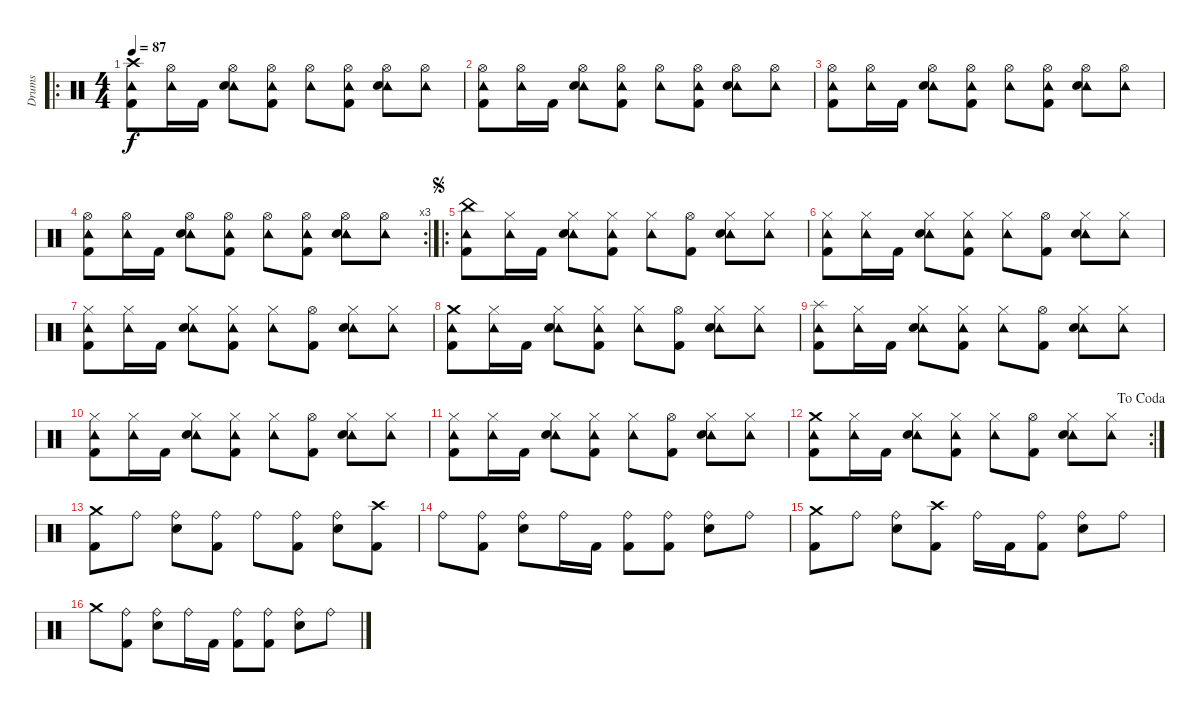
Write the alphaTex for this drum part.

\track ("Drums" "Drums") {instrument percussion}
\staff {score}
\articulation defaults
\ro
\ts (4 4)
\tempo 87
\clef neutral
\ks c
("Tambourine (hit)" "Crash high (hit)" "Kick (hit) 2").8{dy f volume 0} ("Tambourine (hit)" "Hi-Hat (open)").16{volume 6} "Kick (hit) 2".16 ("Tambourine (hit)" "Hi-Hat (open)" "Snare (hit) 2").8 ("Tambourine (hit)" "Hi-Hat (open)" "Kick (hit) 2").8 ("Tambourine (hit)" "Hi-Hat (open)").8 ("Tambourine (hit)" "Hi-Hat (open)" "Kick (hit) 2").8 ("Tambourine (hit)" "Hi-Hat (open)" "Snare (hit) 2").8 ("Tambourine (hit)" "Hi-Hat (open)").8 |
("Tambourine (hit)" "Hi-Hat (open)" "Kick (hit) 2").8 ("Tambourine (hit)" "Hi-Hat (open)").16 "Kick (hit) 2".16 ("Tambourine (hit)" "Hi-Hat (open)" "Snare (hit) 2").8 ("Tambourine (hit)" "Hi-Hat (open)" "Kick (hit) 2").8 ("Tambourine (hit)" "Hi-Hat (open)").8 ("Tambourine (hit)" "Hi-Hat (open)" "Kick (hit) 2").8 ("Tambourine (hit)" "Hi-Hat (open)" "Snare (hit) 2").8 ("Tambourine (hit)" "Hi-Hat (open)").8 |
("Tambourine (hit)" "Hi-Hat (open)" "Kick (hit) 2").8{volume 10} ("Tambourine (hit)" "Hi-Hat (open)").16 "Kick (hit) 2".16 ("Tambourine (hit)" "Hi-Hat (open)" "Snare (hit) 2").8 ("Tambourine (hit)" "Hi-Hat (open)" "Kick (hit) 2").8 ("Tambourine (hit)" "Hi-Hat (open)").8 ("Tambourine (hit)" "Hi-Hat (open)" "Kick (hit) 2").8 ("Tambourine (hit)" "Hi-Hat (open)" "Snare (hit) 2").8 ("Tambourine (hit)" "Hi-Hat (open)").8 |
\rc 3
("Tambourine (hit)" "Hi-Hat (open)" "Kick (hit) 2").8 ("Tambourine (hit)" "Hi-Hat (open)").16 "Kick (hit) 2".16 ("Tambourine (hit)" "Hi-Hat (open)" "Snare (hit) 2").8 ("Tambourine (hit)" "Hi-Hat (open)" "Kick (hit) 2").8 ("Tambourine (hit)" "Hi-Hat (open)").8 ("Tambourine (hit)" "Hi-Hat (open)" "Kick (hit) 2").8 ("Tambourine (hit)" "Hi-Hat (open)" "Snare (hit) 2").8 ("Tambourine (hit)" "Hi-Hat (open)").8 |
\ro
\jump segno
("Tambourine (hit)" "China (hit)" "Kick (hit) 2").8 ("Tambourine (hit)" "Hi-Hat (closed)").16 "Kick (hit) 2".16 ("Tambourine (hit)" "Hi-Hat (closed)" "Snare (hit) 2").8 ("Tambourine (hit)" "Hi-Hat (closed)" "Kick (hit) 2").8 ("Tambourine (hit)" "Hi-Hat (closed)").8 ("Hi-Hat (open)" "Kick (hit) 2").8 ("Tambourine (hit)" "Hi-Hat (closed)" "Snare (hit) 2").8 ("Tambourine (hit)" "Hi-Hat (closed)").8 |
("Tambourine (hit)" "Hi-Hat (closed)" "Kick (hit) 2").8 ("Tambourine (hit)" "Hi-Hat (closed)").16 "Kick (hit) 2".16 ("Tambourine (hit)" "Hi-Hat (closed)" "Snare (hit) 2").8 ("Tambourine (hit)" "Hi-Hat (closed)" "Kick (hit) 2").8 ("Tambourine (hit)" "Hi-Hat (closed)").8 ("Hi-Hat (open)" "Kick (hit) 2").8 ("Tambourine (hit)" "Hi-Hat (closed)" "Snare (hit) 2").8 ("Tambourine (hit)" "Hi-Hat (closed)").8 |
("Tambourine (hit)" "Hi-Hat (closed)" "Kick (hit) 2").8 ("Tambourine (hit)" "Hi-Hat (closed)").16 "Kick (hit) 2".16 ("Tambourine (hit)" "Hi-Hat (closed)" "Snare (hit) 2").8 ("Tambourine (hit)" "Hi-Hat (closed)" "Kick (hit) 2").8 ("Tambourine (hit)" "Hi-Hat (closed)").8 ("Hi-Hat (open)" "Kick (hit) 2").8 ("Tambourine (hit)" "Hi-Hat (closed)" "Snare (hit) 2").8 ("Tambourine (hit)" "Hi-Hat (closed)").8 |
("Tambourine (hit)" "Crash medium (hit)" "Kick (hit) 2").8 ("Tambourine (hit)" "Hi-Hat (closed)").16 "Kick (hit) 2".16 ("Tambourine (hit)" "Hi-Hat (closed)" "Snare (hit) 2").8 ("Tambourine (hit)" "Hi-Hat (closed)" "Kick (hit) 2").8 ("Tambourine (hit)" "Hi-Hat (closed)").8 ("Hi-Hat (open)" "Kick (hit) 2").8 ("Tambourine (hit)" "Hi-Hat (closed)" "Snare (hit) 2").8 ("Tambourine (hit)" "Hi-Hat (closed)").8 |
("Tambourine (hit)" "Splash (hit)" "Kick (hit) 2").8 ("Tambourine (hit)" "Hi-Hat (closed)").16 "Kick (hit) 2".16 ("Tambourine (hit)" "Hi-Hat (closed)" "Snare (hit) 2").8 ("Tambourine (hit)" "Hi-Hat (closed)" "Kick (hit) 2").8 ("Tambourine (hit)" "Hi-Hat (closed)").8 ("Hi-Hat (open)" "Kick (hit) 2").8 ("Tambourine (hit)" "Hi-Hat (closed)" "Snare (hit) 2").8 ("Tambourine (hit)" "Hi-Hat (closed)").8 |
("Tambourine (hit)" "Hi-Hat (closed)" "Kick (hit) 2").8 ("Tambourine (hit)" "Hi-Hat (closed)").16 "Kick (hit) 2".16 ("Tambourine (hit)" "Hi-Hat (closed)" "Snare (hit) 2").8 ("Tambourine (hit)" "Hi-Hat (closed)" "Kick (hit) 2").8 ("Tambourine (hit)" "Hi-Hat (closed)").8 ("Hi-Hat (open)" "Kick (hit) 2").8 ("Tambourine (hit)" "Hi-Hat (closed)" "Snare (hit) 2").8 ("Tambourine (hit)" "Hi-Hat (closed)").8 |
("Tambourine (hit)" "Hi-Hat (closed)" "Kick (hit) 2").8 ("Tambourine (hit)" "Hi-Hat (closed)").16 "Kick (hit) 2".16 ("Tambourine (hit)" "Hi-Hat (closed)" "Snare (hit) 2").8 ("Tambourine (hit)" "Hi-Hat (closed)" "Kick (hit) 2").8 ("Tambourine (hit)" "Hi-Hat (closed)").8 ("Hi-Hat (open)" "Kick (hit) 2").8 ("Tambourine (hit)" "Hi-Hat (closed)" "Snare (hit) 2").8 ("Tambourine (hit)" "Hi-Hat (closed)").8 |
\rc 2
\jump dacoda
("Tambourine (hit)" "Crash medium (hit)" "Kick (hit) 2").8 ("Tambourine (hit)" "Hi-Hat (closed)").16 "Kick (hit) 2".16 ("Tambourine (hit)" "Hi-Hat (closed)" "Snare (hit) 2").8 ("Tambourine (hit)" "Hi-Hat (closed)" "Kick (hit) 2").8 ("Tambourine (hit)" "Hi-Hat (closed)").8 ("Hi-Hat (open)" "Kick (hit) 2").8 ("Tambourine (hit)" "Hi-Hat (closed)" "Snare (hit) 2").8 ("Tambourine (hit)" "Hi-Hat (closed)").8 |
("Crash medium (hit)" "Kick (hit) 2").8 "Ride (bell)".8 ("Ride (bell)" "Snare (hit) 2").8 ("Ride (bell)" "Kick (hit) 2").8 "Ride (bell)".8 ("Ride (bell)" "Kick (hit) 2").8 ("Ride (bell)" "Snare (hit) 2").8 ("Crash high (hit)" "Kick (hit) 2").8 |
"Ride (bell)".8 ("Ride (bell)" "Kick (hit) 2").8 ("Ride (bell)" "Snare (hit) 2").8 "Ride (bell)".16 "Kick (hit) 2".16 ("Ride (bell)" "Kick (hit) 2").8 ("Ride (bell)" "Kick (hit) 2").8 ("Ride (bell)" "Snare (hit) 2").8 "Ride (bell)".8 |
("Crash medium (hit)" "Kick (hit) 2").8 "Ride (bell)".8 ("Ride (bell)" "Snare (hit) 2").8 ("Crash high (hit)" "Kick (hit) 2").8 "Ride (bell)".16 "Kick (hit) 2".16 ("Ride (bell)" "Kick (hit) 2").8 ("Ride (bell)" "Snare (hit) 2").8 "Ride (bell)".8 |
"Crash medium (hit)".8 ("Ride (bell)" "Kick (hit) 2").8 ("Ride (bell)" "Snare (hit) 2").8 "Ride (bell)".16 "Kick (hit) 2".16 ("Ride (bell)" "Kick (hit) 2").8 ("Ride (bell)" "Kick (hit) 2").8 ("Ride (bell)" "Snare (hit) 2").8 "Ride (bell)".8
